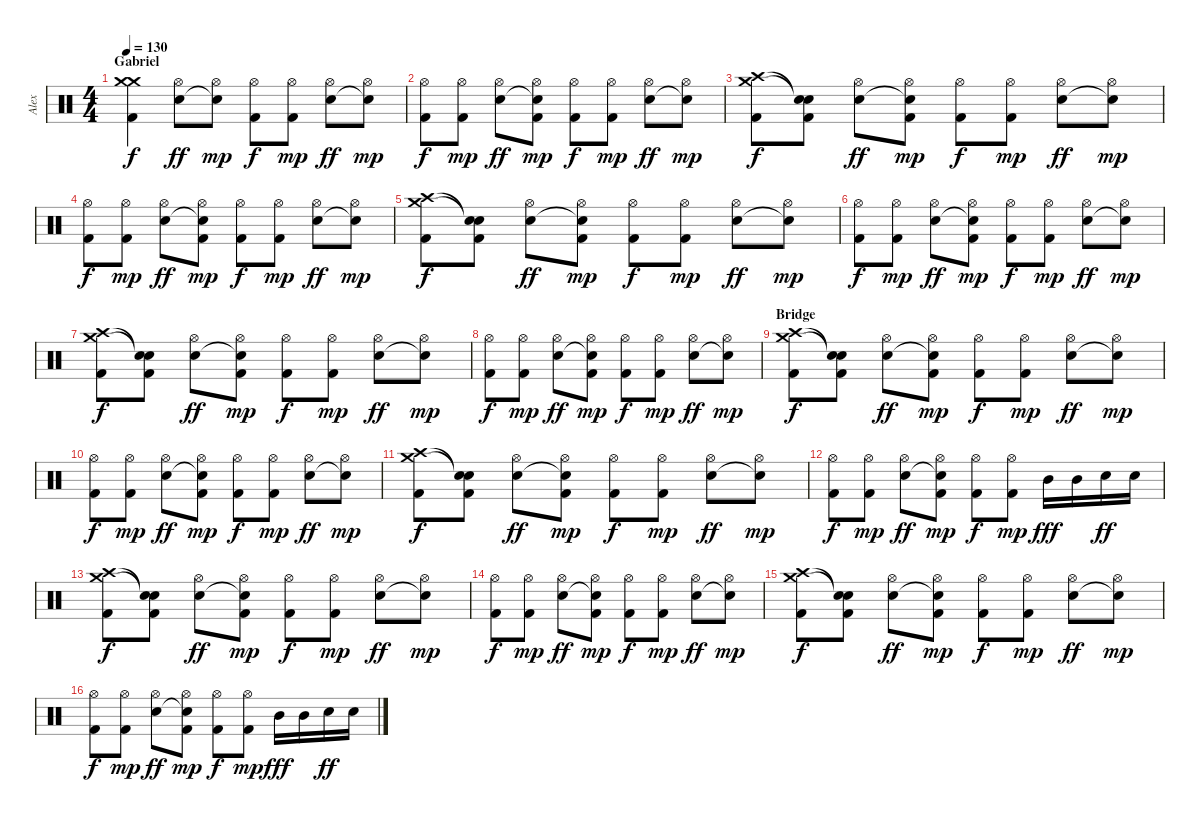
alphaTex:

\track ("Alex" "Alex") {instrument percussion}
\staff {score}
\articulation defaults
\ts (4 4)
\section ("" "Gabriel")
\tempo 130
\clef neutral
\ks c
("Crash medium (hit)" "Crash medium (hit)" "Kick (hit) 2").4{dy f} ("Hi-Hat (open)" "Electric Snare (hit)").8{dy ff} ("Hi-Hat (open)" "Snare (hit)"{t}).8{dy mp} ("Hi-Hat (open)" "Kick (hit) 2").8{dy f} ("Hi-Hat (open)" "Kick (hit) 2").8{dy mp} ("Hi-Hat (open)" "Electric Snare (hit)").8{dy ff} ("Hi-Hat (open)" "Snare (hit)"{t}).8{dy mp} |
("Hi-Hat (open)" "Kick (hit) 2").8{dy f} ("Hi-Hat (open)" "Kick (hit) 2").8{dy mp} ("Hi-Hat (open)" "Electric Snare (hit)").8{dy ff} ("Hi-Hat (open)" "Snare (hit)"{t} "Kick (hit) 2").8{dy mp} ("Hi-Hat (open)" "Kick (hit) 2").8{dy f} ("Hi-Hat (open)" "Kick (hit) 2").8{dy mp} ("Hi-Hat (open)" "Electric Snare (hit)").8{dy ff} ("Hi-Hat (open)" "Snare (hit)"{t}).8{dy mp} |
("Crash medium (hit)" "Crash high (hit)" "Kick (hit) 2").8{dy f} ("Snare (hit)"{t} "Snare (hit)"{t} "Kick (hit) 2").8 ("Hi-Hat (open)" "Electric Snare (hit)").8{dy ff} ("Hi-Hat (open)" "Snare (hit)"{t} "Kick (hit) 2").8{dy mp} ("Hi-Hat (open)" "Kick (hit) 2").8{dy f} ("Hi-Hat (open)" "Kick (hit) 2").8{dy mp} ("Hi-Hat (open)" "Electric Snare (hit)").8{dy ff} ("Hi-Hat (open)" "Snare (hit)"{t}).8{dy mp} |
("Hi-Hat (open)" "Kick (hit) 2").8{dy f} ("Hi-Hat (open)" "Kick (hit) 2").8{dy mp} ("Hi-Hat (open)" "Electric Snare (hit)").8{dy ff} ("Hi-Hat (open)" "Snare (hit)"{t} "Kick (hit) 2").8{dy mp} ("Hi-Hat (open)" "Kick (hit) 2").8{dy f} ("Hi-Hat (open)" "Kick (hit) 2").8{dy mp} ("Hi-Hat (open)" "Electric Snare (hit)").8{dy ff} ("Hi-Hat (open)" "Snare (hit)"{t}).8{dy mp} |
("Crash medium (hit)" "Crash high (hit)" "Kick (hit) 2").8{dy f} ("Snare (hit)"{t} "Snare (hit)"{t} "Kick (hit) 2").8 ("Hi-Hat (open)" "Electric Snare (hit)").8{dy ff} ("Hi-Hat (open)" "Snare (hit)"{t} "Kick (hit) 2").8{dy mp} ("Hi-Hat (open)" "Kick (hit) 2").8{dy f} ("Hi-Hat (open)" "Kick (hit) 2").8{dy mp} ("Hi-Hat (open)" "Electric Snare (hit)").8{dy ff} ("Hi-Hat (open)" "Snare (hit)"{t}).8{dy mp} |
("Hi-Hat (open)" "Kick (hit) 2").8{dy f} ("Hi-Hat (open)" "Kick (hit) 2").8{dy mp} ("Hi-Hat (open)" "Electric Snare (hit)").8{dy ff} ("Hi-Hat (open)" "Snare (hit)"{t} "Kick (hit) 2").8{dy mp} ("Hi-Hat (open)" "Kick (hit) 2").8{dy f} ("Hi-Hat (open)" "Kick (hit) 2").8{dy mp} ("Hi-Hat (open)" "Electric Snare (hit)").8{dy ff} ("Hi-Hat (open)" "Snare (hit)"{t}).8{dy mp} |
("Crash medium (hit)" "Crash high (hit)" "Kick (hit) 2").8{dy f} ("Snare (hit)"{t} "Snare (hit)"{t} "Kick (hit) 2").8 ("Hi-Hat (open)" "Electric Snare (hit)").8{dy ff} ("Hi-Hat (open)" "Snare (hit)"{t} "Kick (hit) 2").8{dy mp} ("Hi-Hat (open)" "Kick (hit) 2").8{dy f} ("Hi-Hat (open)" "Kick (hit) 2").8{dy mp} ("Hi-Hat (open)" "Electric Snare (hit)").8{dy ff} ("Hi-Hat (open)" "Snare (hit)"{t}).8{dy mp} |
("Hi-Hat (open)" "Kick (hit) 2").8{dy f} ("Hi-Hat (open)" "Kick (hit) 2").8{dy mp} ("Hi-Hat (open)" "Electric Snare (hit)").8{dy ff} ("Hi-Hat (open)" "Snare (hit)"{t} "Kick (hit) 2").8{dy mp} ("Hi-Hat (open)" "Kick (hit) 2").8{dy f} ("Hi-Hat (open)" "Kick (hit) 2").8{dy mp} ("Hi-Hat (open)" "Electric Snare (hit)").8{dy ff} ("Hi-Hat (open)" "Snare (hit)"{t}).8{dy mp} |
\section ("" "Bridge")
("Crash medium (hit)" "Crash high (hit)" "Kick (hit) 2").8{dy f} ("Snare (hit)"{t} "Snare (hit)"{t} "Kick (hit) 2").8 ("Hi-Hat (open)" "Electric Snare (hit)").8{dy ff} ("Hi-Hat (open)" "Snare (hit)"{t} "Kick (hit) 2").8{dy mp} ("Hi-Hat (open)" "Kick (hit) 2").8{dy f} ("Hi-Hat (open)" "Kick (hit) 2").8{dy mp} ("Hi-Hat (open)" "Electric Snare (hit)").8{dy ff} ("Hi-Hat (open)" "Snare (hit)"{t}).8{dy mp} |
("Hi-Hat (open)" "Kick (hit) 2").8{dy f} ("Hi-Hat (open)" "Kick (hit) 2").8{dy mp} ("Hi-Hat (open)" "Electric Snare (hit)").8{dy ff} ("Hi-Hat (open)" "Snare (hit)"{t} "Kick (hit) 2").8{dy mp} ("Hi-Hat (open)" "Kick (hit) 2").8{dy f} ("Hi-Hat (open)" "Kick (hit) 2").8{dy mp} ("Hi-Hat (open)" "Electric Snare (hit)").8{dy ff} ("Hi-Hat (open)" "Snare (hit)"{t}).8{dy mp} |
("Crash medium (hit)" "Crash high (hit)" "Kick (hit) 2").8{dy f} ("Snare (hit)"{t} "Snare (hit)"{t} "Kick (hit) 2").8 ("Hi-Hat (open)" "Electric Snare (hit)").8{dy ff} ("Hi-Hat (open)" "Snare (hit)"{t} "Kick (hit) 2").8{dy mp} ("Hi-Hat (open)" "Kick (hit) 2").8{dy f} ("Hi-Hat (open)" "Kick (hit) 2").8{dy mp} ("Hi-Hat (open)" "Electric Snare (hit)").8{dy ff} ("Hi-Hat (open)" "Snare (hit)"{t}).8{dy mp} |
("Hi-Hat (open)" "Kick (hit) 2").8{dy f} ("Hi-Hat (open)" "Kick (hit) 2").8{dy mp} ("Hi-Hat (open)" "Electric Snare (hit)").8{dy ff} ("Hi-Hat (open)" "Snare (hit)"{t} "Kick (hit) 2").8{dy mp} ("Hi-Hat (open)" "Kick (hit) 2").8{dy f} ("Hi-Hat (open)" "Kick (hit) 2").8{dy mp} "Mid Tom (hit)".16{dy fff} "Mid Tom (hit)".16 "Electric Snare (hit)".16{dy ff} "Electric Snare (hit)".16 |
("Crash medium (hit)" "Crash high (hit)" "Kick (hit) 2").8{dy f} ("Snare (hit)"{t} "Snare (hit)"{t} "Kick (hit) 2").8 ("Hi-Hat (open)" "Electric Snare (hit)").8{dy ff} ("Hi-Hat (open)" "Snare (hit)"{t} "Kick (hit) 2").8{dy mp} ("Hi-Hat (open)" "Kick (hit) 2").8{dy f} ("Hi-Hat (open)" "Kick (hit) 2").8{dy mp} ("Hi-Hat (open)" "Electric Snare (hit)").8{dy ff} ("Hi-Hat (open)" "Snare (hit)"{t}).8{dy mp} |
("Hi-Hat (open)" "Kick (hit) 2").8{dy f} ("Hi-Hat (open)" "Kick (hit) 2").8{dy mp} ("Hi-Hat (open)" "Electric Snare (hit)").8{dy ff} ("Hi-Hat (open)" "Snare (hit)"{t} "Kick (hit) 2").8{dy mp} ("Hi-Hat (open)" "Kick (hit) 2").8{dy f} ("Hi-Hat (open)" "Kick (hit) 2").8{dy mp} ("Hi-Hat (open)" "Electric Snare (hit)").8{dy ff} ("Hi-Hat (open)" "Snare (hit)"{t}).8{dy mp} |
("Crash medium (hit)" "Crash high (hit)" "Kick (hit) 2").8{dy f} ("Snare (hit)"{t} "Snare (hit)"{t} "Kick (hit) 2").8 ("Hi-Hat (open)" "Electric Snare (hit)").8{dy ff} ("Hi-Hat (open)" "Snare (hit)"{t} "Kick (hit) 2").8{dy mp} ("Hi-Hat (open)" "Kick (hit) 2").8{dy f} ("Hi-Hat (open)" "Kick (hit) 2").8{dy mp} ("Hi-Hat (open)" "Electric Snare (hit)").8{dy ff} ("Hi-Hat (open)" "Snare (hit)"{t}).8{dy mp} |
("Hi-Hat (open)" "Kick (hit) 2").8{dy f} ("Hi-Hat (open)" "Kick (hit) 2").8{dy mp} ("Hi-Hat (open)" "Electric Snare (hit)").8{dy ff} ("Hi-Hat (open)" "Snare (hit)"{t} "Kick (hit) 2").8{dy mp} ("Hi-Hat (open)" "Kick (hit) 2").8{dy f} ("Hi-Hat (open)" "Kick (hit) 2").8{dy mp} "Mid Tom (hit)".16{dy fff} "Mid Tom (hit)".16 "Electric Snare (hit)".16{dy ff} "Electric Snare (hit)".16
